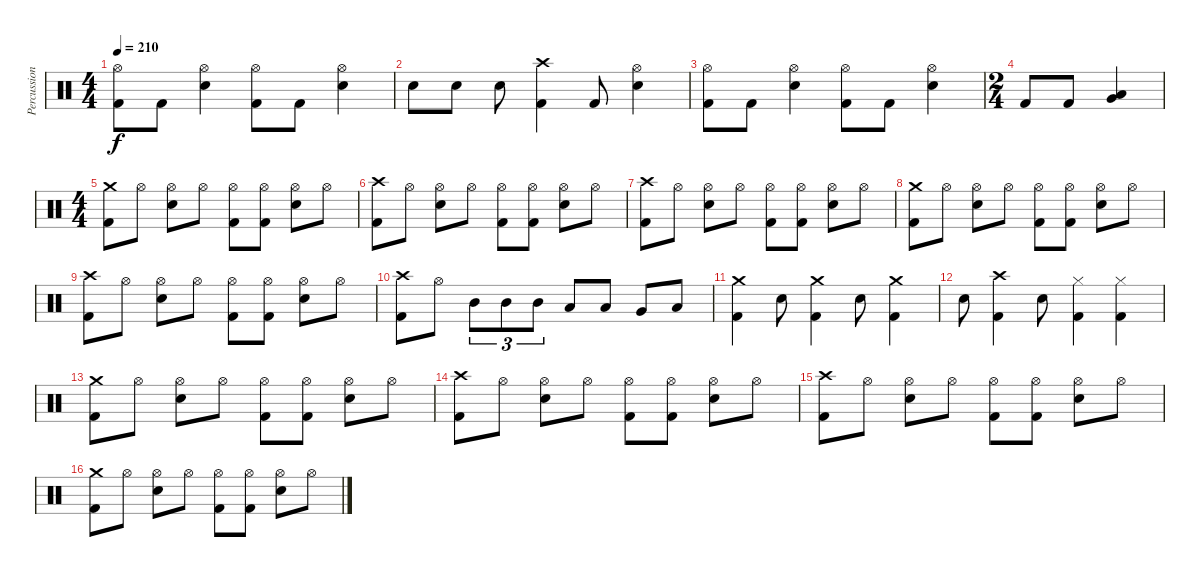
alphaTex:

\track ("Percussion" "Percussion") {instrument percussion}
\staff {score}
\articulation defaults
\ts (4 4)
\tempo 210
\clef neutral
\ks c
("Hi-Hat (open)" "Kick (hit) 2").8{dy f} "Kick (hit) 2".8 ("Hi-Hat (open)" "Snare (hit) 2").4 ("Hi-Hat (open)" "Kick (hit) 2").8 "Kick (hit) 2".8 ("Hi-Hat (open)" "Snare (hit) 2").4 |
"Snare (hit) 2".8 "Snare (hit) 2".8 "Snare (hit) 2".8 ("Crash high (hit)" "Kick (hit) 2").4 "Kick (hit) 2".8 ("Hi-Hat (open)" "Snare (hit) 2").4 |
("Hi-Hat (open)" "Kick (hit) 2").8 "Kick (hit) 2".8 ("Hi-Hat (open)" "Snare (hit) 2").4 ("Hi-Hat (open)" "Kick (hit) 2").8 "Kick (hit) 2".8 ("Hi-Hat (open)" "Snare (hit) 2").4 |
\ts (2 4)
"Kick (hit) 2".8 "Kick (hit) 2".8 ("Very Low Tom (hit)" "Low Floor Tom (hit)").4 |
\ts (4 4)
("Crash medium (hit)" "Kick (hit) 2").8 "Hi-Hat (open)".8 ("Hi-Hat (open)" "Snare (hit) 2").8 "Hi-Hat (open)".8 ("Hi-Hat (open)" "Kick (hit) 2").8 ("Hi-Hat (open)" "Kick (hit) 2").8 ("Hi-Hat (open)" "Snare (hit) 2").8 "Hi-Hat (open)".8 |
("Crash high (hit)" "Kick (hit) 2").8 "Hi-Hat (open)".8 ("Hi-Hat (open)" "Snare (hit) 2").8 "Hi-Hat (open)".8 ("Hi-Hat (open)" "Kick (hit) 2").8 ("Hi-Hat (open)" "Kick (hit) 2").8 ("Hi-Hat (open)" "Snare (hit) 2").8 "Hi-Hat (open)".8 |
("Crash high (hit)" "Kick (hit) 2").8 "Hi-Hat (open)".8 ("Hi-Hat (open)" "Snare (hit) 2").8 "Hi-Hat (open)".8 ("Hi-Hat (open)" "Kick (hit) 2").8 ("Hi-Hat (open)" "Kick (hit) 2").8 ("Hi-Hat (open)" "Snare (hit) 2").8 "Hi-Hat (open)".8 |
("Crash medium (hit)" "Kick (hit) 2").8 "Hi-Hat (open)".8 ("Hi-Hat (open)" "Snare (hit) 2").8 "Hi-Hat (open)".8 ("Hi-Hat (open)" "Kick (hit) 2").8 ("Hi-Hat (open)" "Kick (hit) 2").8 ("Hi-Hat (open)" "Snare (hit) 2").8 "Hi-Hat (open)".8 |
("Crash high (hit)" "Kick (hit) 2").8 "Hi-Hat (open)".8 ("Hi-Hat (open)" "Snare (hit) 2").8 "Hi-Hat (open)".8 ("Hi-Hat (open)" "Kick (hit) 2").8 ("Hi-Hat (open)" "Kick (hit) 2").8 ("Hi-Hat (open)" "Snare (hit) 2").8 "Hi-Hat (open)".8 |
("Crash high (hit)" "Kick (hit) 2").8 "Hi-Hat (open)".8 "Mid Tom (hit)".8{tu (3 2)} "Mid Tom (hit)".8{tu (3 2)} "Mid Tom (hit)".8{tu (3 2)} "Low Tom (hit)".8 "Low Tom (hit)".8 "Very Low Tom (hit)".8 "Low Floor Tom (hit)".8 |
("Crash medium (hit)" "Kick (hit) 2").4 "Snare (hit) 2".8 ("Crash medium (hit)" "Kick (hit) 2").4 "Snare (hit) 2".8 ("Crash medium (hit)" "Kick (hit) 2").4 |
"Snare (hit) 2".8 ("Crash high (hit)" "Kick (hit) 2").4 "Snare (hit) 2".8 ("Hi-Hat (closed)" "Kick (hit) 2").4 ("Hi-Hat (closed)" "Kick (hit) 2").4 |
("Crash medium (hit)" "Kick (hit) 2").8 "Hi-Hat (open)".8 ("Hi-Hat (open)" "Snare (hit) 2").8 "Hi-Hat (open)".8 ("Hi-Hat (open)" "Kick (hit) 2").8 ("Hi-Hat (open)" "Kick (hit) 2").8 ("Hi-Hat (open)" "Snare (hit) 2").8 "Hi-Hat (open)".8 |
("Crash high (hit)" "Kick (hit) 2").8 "Hi-Hat (open)".8 ("Hi-Hat (open)" "Snare (hit) 2").8 "Hi-Hat (open)".8 ("Hi-Hat (open)" "Kick (hit) 2").8 ("Hi-Hat (open)" "Kick (hit) 2").8 ("Hi-Hat (open)" "Snare (hit) 2").8 "Hi-Hat (open)".8 |
("Crash high (hit)" "Kick (hit) 2").8 "Hi-Hat (open)".8 ("Hi-Hat (open)" "Snare (hit) 2").8 "Hi-Hat (open)".8 ("Hi-Hat (open)" "Kick (hit) 2").8 ("Hi-Hat (open)" "Kick (hit) 2").8 ("Hi-Hat (open)" "Snare (hit) 2").8 "Hi-Hat (open)".8 |
("Crash medium (hit)" "Kick (hit) 2").8 "Hi-Hat (open)".8 ("Hi-Hat (open)" "Snare (hit) 2").8 "Hi-Hat (open)".8 ("Hi-Hat (open)" "Kick (hit) 2").8 ("Hi-Hat (open)" "Kick (hit) 2").8 ("Hi-Hat (open)" "Snare (hit) 2").8 "Hi-Hat (open)".8
